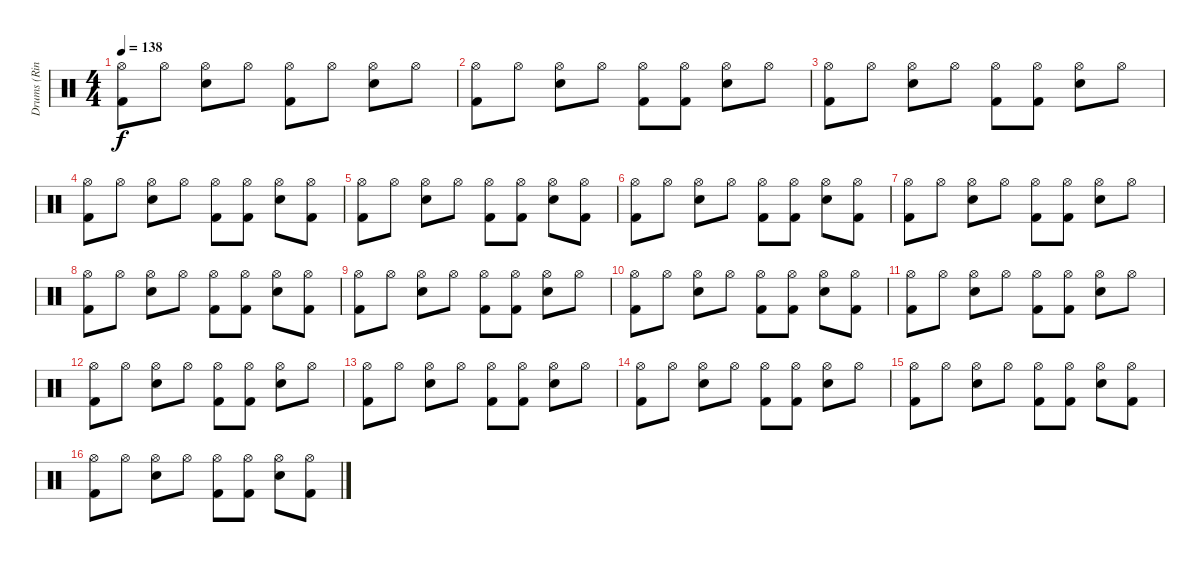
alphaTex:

\track ("Drums (Ringo Starr)" "Drums (Rin") {instrument percussion}
\staff {score}
\articulation defaults
\ts (4 4)
\tempo 138
\clef neutral
\ks c
("Hi-Hat (open)" "Kick (hit) 2").8{dy f} "Hi-Hat (open)".8 ("Hi-Hat (open)" "Snare (hit) 2").8 "Hi-Hat (open)".8 ("Hi-Hat (open)" "Kick (hit) 2").8 "Hi-Hat (open)".8 ("Hi-Hat (open)" "Snare (hit) 2").8 "Hi-Hat (open)".8 |
("Hi-Hat (open)" "Kick (hit) 2").8{volume 16} "Hi-Hat (open)".8 ("Hi-Hat (open)" "Snare (hit) 2").8 "Hi-Hat (open)".8 ("Hi-Hat (open)" "Kick (hit) 2").8 ("Hi-Hat (open)" "Kick (hit) 2").8 ("Hi-Hat (open)" "Snare (hit) 2").8 "Hi-Hat (open)".8 |
("Hi-Hat (open)" "Kick (hit) 2").8 "Hi-Hat (open)".8 ("Hi-Hat (open)" "Snare (hit) 2").8 "Hi-Hat (open)".8 ("Hi-Hat (open)" "Kick (hit) 2").8 ("Hi-Hat (open)" "Kick (hit) 2").8 ("Hi-Hat (open)" "Snare (hit) 2").8 "Hi-Hat (open)".8 |
("Hi-Hat (open)" "Kick (hit) 2").8 "Hi-Hat (open)".8 ("Hi-Hat (open)" "Snare (hit) 2").8 "Hi-Hat (open)".8 ("Hi-Hat (open)" "Kick (hit) 2").8 ("Hi-Hat (open)" "Kick (hit) 2").8 ("Hi-Hat (open)" "Snare (hit) 2").8 ("Hi-Hat (open)" "Kick (hit) 2").8 |
("Hi-Hat (open)" "Kick (hit) 2").8 "Hi-Hat (open)".8 ("Hi-Hat (open)" "Snare (hit) 2").8 "Hi-Hat (open)".8 ("Hi-Hat (open)" "Kick (hit) 2").8 ("Hi-Hat (open)" "Kick (hit) 2").8 ("Hi-Hat (open)" "Snare (hit) 2").8 ("Hi-Hat (open)" "Kick (hit) 2").8 |
("Hi-Hat (open)" "Kick (hit) 2").8 "Hi-Hat (open)".8 ("Hi-Hat (open)" "Snare (hit) 2").8 "Hi-Hat (open)".8 ("Hi-Hat (open)" "Kick (hit) 2").8 ("Hi-Hat (open)" "Kick (hit) 2").8 ("Hi-Hat (open)" "Snare (hit) 2").8 ("Hi-Hat (open)" "Kick (hit) 2").8 |
("Hi-Hat (open)" "Kick (hit) 2").8 "Hi-Hat (open)".8 ("Hi-Hat (open)" "Snare (hit) 2").8 "Hi-Hat (open)".8 ("Hi-Hat (open)" "Kick (hit) 2").8 ("Hi-Hat (open)" "Kick (hit) 2").8 ("Hi-Hat (open)" "Snare (hit) 2").8 "Hi-Hat (open)".8 |
("Hi-Hat (open)" "Kick (hit) 2").8 "Hi-Hat (open)".8 ("Hi-Hat (open)" "Snare (hit) 2").8 "Hi-Hat (open)".8 ("Hi-Hat (open)" "Kick (hit) 2").8 ("Hi-Hat (open)" "Kick (hit) 2").8 ("Hi-Hat (open)" "Snare (hit) 2").8 ("Hi-Hat (open)" "Kick (hit) 2").8 |
("Hi-Hat (open)" "Kick (hit) 2").8 "Hi-Hat (open)".8 ("Hi-Hat (open)" "Snare (hit) 2").8 "Hi-Hat (open)".8 ("Hi-Hat (open)" "Kick (hit) 2").8 ("Hi-Hat (open)" "Kick (hit) 2").8 ("Hi-Hat (open)" "Snare (hit) 2").8 "Hi-Hat (open)".8 |
("Hi-Hat (open)" "Kick (hit) 2").8 "Hi-Hat (open)".8 ("Hi-Hat (open)" "Snare (hit) 2").8 "Hi-Hat (open)".8 ("Hi-Hat (open)" "Kick (hit) 2").8 ("Hi-Hat (open)" "Kick (hit) 2").8 ("Hi-Hat (open)" "Snare (hit) 2").8 ("Hi-Hat (open)" "Kick (hit) 2").8 |
("Hi-Hat (open)" "Kick (hit) 2").8 "Hi-Hat (open)".8 ("Hi-Hat (open)" "Snare (hit) 2").8 "Hi-Hat (open)".8 ("Hi-Hat (open)" "Kick (hit) 2").8 ("Hi-Hat (open)" "Kick (hit) 2").8 ("Hi-Hat (open)" "Snare (hit) 2").8 "Hi-Hat (open)".8 |
("Hi-Hat (open)" "Kick (hit) 2").8 "Hi-Hat (open)".8 ("Hi-Hat (open)" "Snare (hit) 2").8 "Hi-Hat (open)".8 ("Hi-Hat (open)" "Kick (hit) 2").8 ("Hi-Hat (open)" "Kick (hit) 2").8 ("Hi-Hat (open)" "Snare (hit) 2").8 "Hi-Hat (open)".8 |
("Hi-Hat (open)" "Kick (hit) 2").8 "Hi-Hat (open)".8 ("Hi-Hat (open)" "Snare (hit) 2").8 "Hi-Hat (open)".8 ("Hi-Hat (open)" "Kick (hit) 2").8 ("Hi-Hat (open)" "Kick (hit) 2").8 ("Hi-Hat (open)" "Snare (hit) 2").8 "Hi-Hat (open)".8 |
("Hi-Hat (open)" "Kick (hit) 2").8 "Hi-Hat (open)".8 ("Hi-Hat (open)" "Snare (hit) 2").8 "Hi-Hat (open)".8 ("Hi-Hat (open)" "Kick (hit) 2").8 ("Hi-Hat (open)" "Kick (hit) 2").8 ("Hi-Hat (open)" "Snare (hit) 2").8 "Hi-Hat (open)".8 |
("Hi-Hat (open)" "Kick (hit) 2").8 "Hi-Hat (open)".8 ("Hi-Hat (open)" "Snare (hit) 2").8 "Hi-Hat (open)".8 ("Hi-Hat (open)" "Kick (hit) 2").8 ("Hi-Hat (open)" "Kick (hit) 2").8 ("Hi-Hat (open)" "Snare (hit) 2").8 ("Hi-Hat (open)" "Kick (hit) 2").8 |
("Hi-Hat (open)" "Kick (hit) 2").8 "Hi-Hat (open)".8 ("Hi-Hat (open)" "Snare (hit) 2").8 "Hi-Hat (open)".8 ("Hi-Hat (open)" "Kick (hit) 2").8 ("Hi-Hat (open)" "Kick (hit) 2").8 ("Hi-Hat (open)" "Snare (hit) 2").8 ("Hi-Hat (open)" "Kick (hit) 2").8
